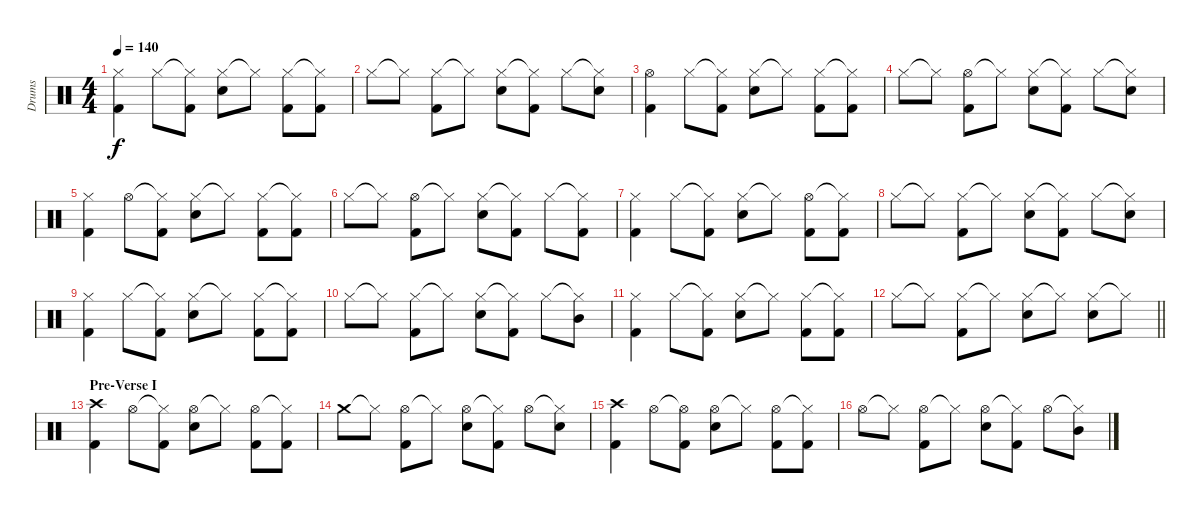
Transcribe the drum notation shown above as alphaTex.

\track ("Drums" "Drums") {instrument percussion}
\staff {score}
\articulation defaults
\ts (4 4)
\tempo 140
\clef neutral
\ks c
("Hi-Hat (closed)" "Kick (hit) 2").4{dy f} "Hi-Hat (closed)".8 ("Hi-Hat (closed)"{t} "Kick (hit) 2").8 ("Hi-Hat (closed)" "Snare (hit) 2").8 "Hi-Hat (closed)"{t}.8 ("Hi-Hat (closed)" "Kick (hit) 2").8 ("Hi-Hat (closed)"{t} "Kick (hit) 2").8 |
"Hi-Hat (closed)".8 "Hi-Hat (closed)"{t}.8 ("Hi-Hat (closed)" "Kick (hit) 2").8 "Hi-Hat (closed)"{t}.8 ("Hi-Hat (closed)" "Snare (hit) 2").8 ("Hi-Hat (closed)"{t} "Kick (hit) 2").8 "Hi-Hat (closed)".8 ("Hi-Hat (closed)"{t} "Snare (hit) 2").8 |
("Hi-Hat (open)" "Kick (hit) 2").4 "Hi-Hat (closed)".8 ("Hi-Hat (closed)"{t} "Kick (hit) 2").8 ("Hi-Hat (closed)" "Snare (hit) 2").8 "Hi-Hat (closed)"{t}.8 ("Hi-Hat (closed)" "Kick (hit) 2").8 ("Hi-Hat (closed)"{t} "Kick (hit) 2").8 |
"Hi-Hat (closed)".8 "Hi-Hat (closed)"{t}.8 ("Hi-Hat (open)" "Kick (hit) 2").8 "Hi-Hat (closed)"{t}.8 ("Hi-Hat (closed)" "Snare (hit) 2").8 ("Hi-Hat (closed)"{t} "Kick (hit) 2").8 "Hi-Hat (closed)".8 ("Hi-Hat (closed)"{t} "Snare (hit) 2").8 |
("Hi-Hat (closed)" "Kick (hit) 2").4 "Hi-Hat (open)".8 ("Hi-Hat (closed)"{t} "Kick (hit) 2").8 ("Hi-Hat (closed)" "Snare (hit) 2").8 "Hi-Hat (closed)"{t}.8 ("Hi-Hat (closed)" "Kick (hit) 2").8 ("Hi-Hat (closed)"{t} "Kick (hit) 2").8 |
"Hi-Hat (closed)".8 "Hi-Hat (closed)"{t}.8 ("Hi-Hat (open)" "Kick (hit) 2").8 "Hi-Hat (closed)"{t}.8 ("Hi-Hat (closed)" "Snare (hit) 2").8 ("Hi-Hat (closed)"{t} "Kick (hit) 2").8 "Hi-Hat (closed)".8 ("Hi-Hat (closed)"{t} "Kick (hit) 2").8 |
("Hi-Hat (closed)" "Kick (hit) 2").4 "Hi-Hat (closed)".8 ("Hi-Hat (closed)"{t} "Kick (hit) 2").8 ("Hi-Hat (closed)" "Snare (hit) 2").8 "Hi-Hat (closed)"{t}.8 ("Hi-Hat (open)" "Kick (hit) 2").8 ("Hi-Hat (closed)"{t} "Kick (hit) 2").8 |
"Hi-Hat (closed)".8 "Hi-Hat (closed)"{t}.8 ("Hi-Hat (closed)" "Kick (hit) 2").8 "Hi-Hat (closed)"{t}.8 ("Hi-Hat (closed)" "Snare (hit) 2").8 ("Hi-Hat (closed)"{t} "Kick (hit) 2").8 "Hi-Hat (closed)".8 ("Hi-Hat (closed)"{t} "Snare (hit) 2").8 |
("Hi-Hat (closed)" "Kick (hit) 2").4 "Hi-Hat (closed)".8 ("Hi-Hat (closed)"{t} "Kick (hit) 2").8 ("Hi-Hat (closed)" "Snare (hit) 2").8 "Hi-Hat (closed)"{t}.8 ("Hi-Hat (closed)" "Kick (hit) 2").8 ("Hi-Hat (closed)"{t} "Kick (hit) 2").8 |
"Hi-Hat (closed)".8 "Hi-Hat (closed)"{t}.8 ("Hi-Hat (closed)" "Kick (hit) 2").8 "Hi-Hat (closed)"{t}.8 ("Hi-Hat (closed)" "Snare (hit) 2").8 ("Hi-Hat (closed)"{t} "Kick (hit) 2").8 "Hi-Hat (closed)".8 ("Hi-Hat (closed)"{t} "Mid Tom (hit)").8 |
("Hi-Hat (closed)" "Kick (hit) 2").4 "Hi-Hat (closed)".8 ("Hi-Hat (closed)"{t} "Kick (hit) 2").8 ("Hi-Hat (closed)" "Snare (hit) 2").8 "Hi-Hat (closed)"{t}.8 ("Hi-Hat (closed)" "Kick (hit) 2").8 ("Hi-Hat (closed)"{t} "Kick (hit) 2").8 |
\barLineRight lightlight "Hi-Hat (closed)".8 "Hi-Hat (closed)"{t}.8
("Hi-Hat (closed)" "Kick (hit) 2").8 "Hi-Hat (closed)"{t}.8 ("Hi-Hat (closed)" "Snare (hit) 2").8 "Hi-Hat (closed)"{t}.8 ("Hi-Hat (closed)" "Snare (hit) 2").8 "Hi-Hat (closed)"{t}.8 |
\section ("" "Pre-Verse I")
("Crash high (hit)" "Kick (hit) 2").4 "Hi-Hat (open)".8 ("Hi-Hat (closed)"{t} "Kick (hit) 2").8 ("Hi-Hat (open)" "Snare (hit) 2").8 "Hi-Hat (closed)"{t}.8 ("Hi-Hat (open)" "Kick (hit) 2").8 ("Hi-Hat (closed)"{t} "Kick (hit) 2").8 |
"Crash medium (hit)".8 "Hi-Hat (closed)"{t}.8 ("Hi-Hat (open)" "Kick (hit) 2").8 "Hi-Hat (closed)"{t}.8 ("Hi-Hat (open)" "Snare (hit) 2").8 ("Hi-Hat (closed)"{t} "Kick (hit) 2").8 "Hi-Hat (open)".8 ("Hi-Hat (closed)"{t} "Snare (hit) 2").8 |
("Crash high (hit)" "Kick (hit) 2").4 "Hi-Hat (open)".8 ("Hi-Hat (open)"{t} "Kick (hit) 2").8 ("Hi-Hat (open)" "Snare (hit) 2").8 "Hi-Hat (closed)"{t}.8 ("Hi-Hat (open)" "Kick (hit) 2").8 ("Hi-Hat (closed)"{t} "Kick (hit) 2").8 |
"Hi-Hat (open)".8 "Hi-Hat (closed)"{t}.8 ("Hi-Hat (open)" "Kick (hit) 2").8 "Hi-Hat (closed)"{t}.8 ("Hi-Hat (open)" "Snare (hit) 2").8 ("Hi-Hat (closed)"{t} "Kick (hit) 2").8 "Hi-Hat (open)".8 ("Hi-Hat (closed)"{t} "Mid Tom (hit)").8
